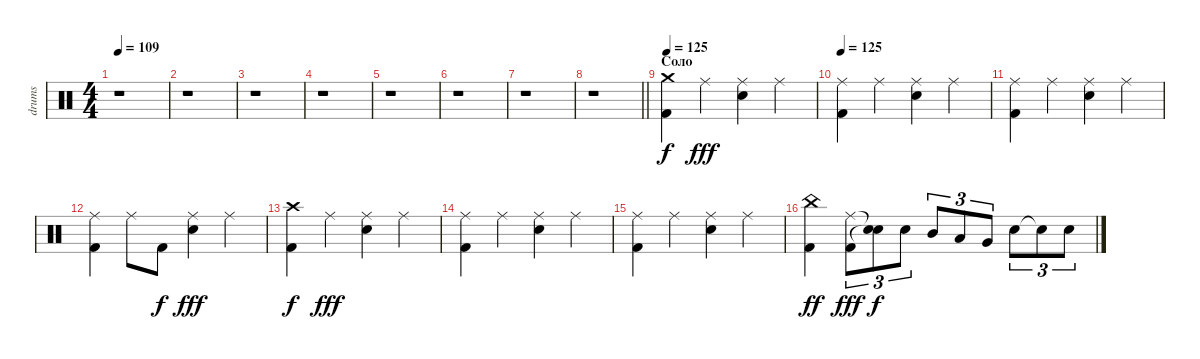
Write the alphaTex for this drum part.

\track ("drums" "drums") {instrument percussion}
\staff {score}
\articulation defaults
\ts (4 4)
\tempo 109
\clef neutral
\ks c
r.1{dy f} |
r.1 |
r.1 |
r.1 |
r.1 |
r.1 |
r.1 |
\barLineRight lightlight
r.1 |
\section ("" "Соло")
\tempo 125
("Kick (hit) 2" "Crash medium (hit)").4 "Ride (middle)".4{dy fff} ("Ride (middle)" "Snare (hit) 2").4 "Ride (middle)".4 |
\tempo 125
("Kick (hit) 2" "Ride (middle)").4 "Ride (middle)".4 ("Snare (hit) 2" "Ride (middle)").4 "Ride (middle)".4 |
("Ride (middle)" "Kick (hit) 2").4 "Ride (middle)".4 ("Ride (middle)" "Snare (hit) 2").4 "Ride (middle)".4 |
("Ride (middle)" "Kick (hit) 2").4 "Ride (middle)".8 "Kick (hit) 2".8{dy f} ("Ride (middle)" "Snare (hit) 2").4{dy fff} "Ride (middle)".4 |
("Kick (hit) 2" "Crash high (hit)").4{dy f} "Ride (middle)".4{dy fff} ("Ride (middle)" "Snare (hit) 2").4 "Ride (middle)".4 |
("Kick (hit) 2" "Ride (middle)").4 "Ride (middle)".4 ("Snare (hit) 2" "Ride (middle)").4 "Ride (middle)".4 |
("Ride (middle)" "Kick (hit) 2").4 "Ride (middle)".4 ("Ride (middle)" "Snare (hit) 2").4 "Ride (middle)".4 |
("China (hit)" "Kick (hit) 2").4{dy ff} ("Kick (hit) 2" "Ride (middle)").8{tu (3 2) dy fff} ("Snare (hit)"{t} "Snare (hit)"{t}).8{tu (3 2) dy f} "Snare (hit) 2".8{tu (3 2)} "Mid Tom (hit)".8{tu (3 2)} "Low Tom (hit)".8{tu (3 2)} "Very Low Tom (hit)".8{tu (3 2)} "Snare (hit) 2".8{tu (3 2)} "Snare (hit)"{t}.8{tu (3 2)} "Snare (hit) 2".8{tu (3 2)}
